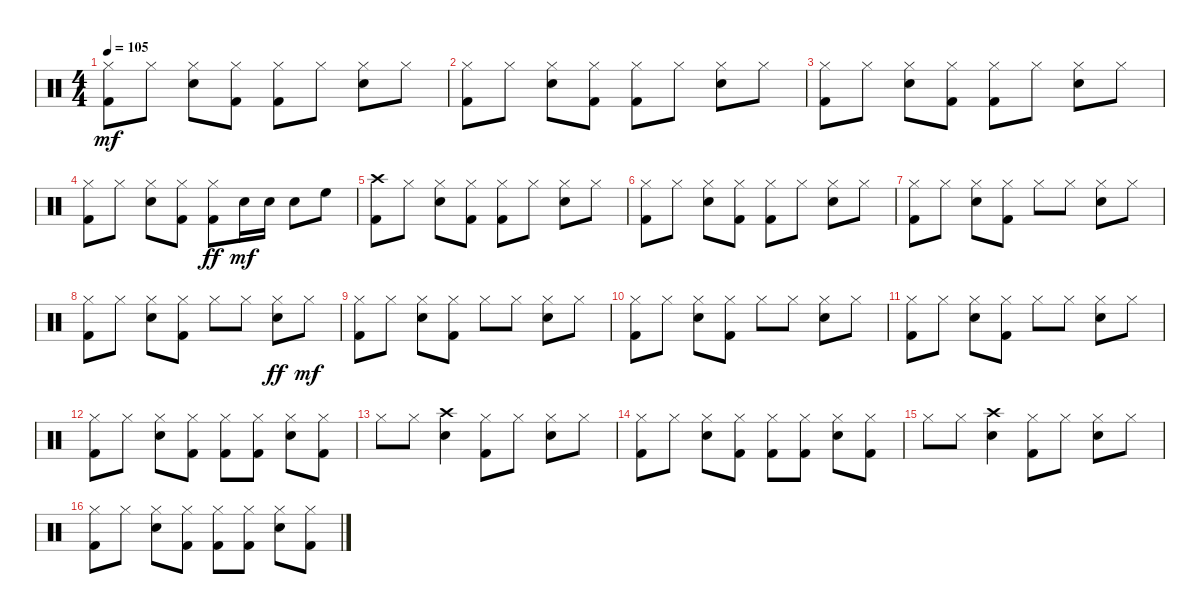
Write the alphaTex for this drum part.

\track "" {instrument percussion}
\staff {score}
\articulation defaults
\ts (4 4)
\tempo 105
\clef neutral
\ks c
("Kick (hit) 2" "Hi-Hat (closed)").8{dy mf} "Hi-Hat (closed)".8 ("Snare (hit) 2" "Hi-Hat (closed)").8 ("Kick (hit) 2" "Hi-Hat (closed)").8 ("Kick (hit) 2" "Hi-Hat (closed)").8 "Hi-Hat (closed)".8 ("Snare (hit) 2" "Hi-Hat (closed)").8 "Hi-Hat (closed)".8 |
("Kick (hit) 2" "Hi-Hat (closed)").8 "Hi-Hat (closed)".8 ("Snare (hit) 2" "Hi-Hat (closed)").8 ("Kick (hit) 2" "Hi-Hat (closed)").8 ("Kick (hit) 2" "Hi-Hat (closed)").8 "Hi-Hat (closed)".8 ("Snare (hit) 2" "Hi-Hat (closed)").8 "Hi-Hat (closed)".8 |
("Kick (hit) 2" "Hi-Hat (closed)").8 "Hi-Hat (closed)".8 ("Snare (hit) 2" "Hi-Hat (closed)").8 ("Kick (hit) 2" "Hi-Hat (closed)").8 ("Kick (hit) 2" "Hi-Hat (closed)").8 "Hi-Hat (closed)".8 ("Snare (hit) 2" "Hi-Hat (closed)").8 "Hi-Hat (closed)".8 |
("Kick (hit) 2" "Hi-Hat (closed)").8 "Hi-Hat (closed)".8 ("Snare (hit) 2" "Hi-Hat (closed)").8 ("Kick (hit) 2" "Hi-Hat (closed)").8 ("Kick (hit) 2" "Hi-Hat (closed)").8{dy ff} "Snare (hit) 2".16{dy mf} "Snare (hit) 2".16 "Snare (hit) 2".8 "High Floor Tom (hit)".8 |
("Kick (hit) 2" "Crash high (hit)").8 "Hi-Hat (closed)".8 ("Snare (hit) 2" "Hi-Hat (closed)").8 ("Kick (hit) 2" "Hi-Hat (closed)").8 ("Kick (hit) 2" "Hi-Hat (closed)").8 "Hi-Hat (closed)".8 ("Snare (hit) 2" "Hi-Hat (closed)").8 "Hi-Hat (closed)".8 |
("Kick (hit) 2" "Hi-Hat (closed)").8 "Hi-Hat (closed)".8 ("Snare (hit) 2" "Hi-Hat (closed)").8 ("Kick (hit) 2" "Hi-Hat (closed)").8 ("Kick (hit) 2" "Hi-Hat (closed)").8 "Hi-Hat (closed)".8 ("Snare (hit) 2" "Hi-Hat (closed)").8 "Hi-Hat (closed)".8 |
("Kick (hit) 2" "Hi-Hat (closed)").8 "Hi-Hat (closed)".8 ("Snare (hit) 2" "Hi-Hat (closed)").8 ("Kick (hit) 2" "Hi-Hat (closed)").8 "Hi-Hat (closed)".8 "Hi-Hat (closed)".8 ("Snare (hit) 2" "Hi-Hat (closed)").8 "Hi-Hat (closed)".8 |
("Kick (hit) 2" "Hi-Hat (closed)").8 "Hi-Hat (closed)".8 ("Snare (hit) 2" "Hi-Hat (closed)").8 ("Kick (hit) 2" "Hi-Hat (closed)").8 "Hi-Hat (closed)".8 "Hi-Hat (closed)".8 ("Snare (hit) 2" "Hi-Hat (closed)").8{dy ff} "Hi-Hat (closed)".8{dy mf} |
("Kick (hit) 2" "Hi-Hat (closed)").8 "Hi-Hat (closed)".8 ("Snare (hit) 2" "Hi-Hat (closed)").8 ("Kick (hit) 2" "Hi-Hat (closed)").8 "Hi-Hat (closed)".8 "Hi-Hat (closed)".8 ("Snare (hit) 2" "Hi-Hat (closed)").8 "Hi-Hat (closed)".8 |
("Kick (hit) 2" "Hi-Hat (closed)").8 "Hi-Hat (closed)".8 ("Snare (hit) 2" "Hi-Hat (closed)").8 ("Kick (hit) 2" "Hi-Hat (closed)").8 "Hi-Hat (closed)".8 "Hi-Hat (closed)".8 ("Snare (hit) 2" "Hi-Hat (closed)").8 "Hi-Hat (closed)".8 |
("Kick (hit) 2" "Hi-Hat (closed)").8 "Hi-Hat (closed)".8 ("Snare (hit) 2" "Hi-Hat (closed)").8 ("Kick (hit) 2" "Hi-Hat (closed)").8 "Hi-Hat (closed)".8 "Hi-Hat (closed)".8 ("Snare (hit) 2" "Hi-Hat (closed)").8 "Hi-Hat (closed)".8 |
("Kick (hit) 2" "Hi-Hat (closed)").8 "Hi-Hat (closed)".8 ("Snare (hit) 2" "Hi-Hat (closed)").8 ("Kick (hit) 2" "Hi-Hat (closed)").8 ("Kick (hit) 2" "Hi-Hat (closed)").8 ("Kick (hit) 2" "Hi-Hat (closed)").8 ("Snare (hit) 2" "Hi-Hat (closed)").8 ("Hi-Hat (closed)" "Kick (hit) 2").8 |
"Hi-Hat (closed)".8 "Hi-Hat (closed)".8 ("Snare (hit) 2" "Crash high (hit)").4 ("Kick (hit) 2" "Hi-Hat (closed)").8 "Hi-Hat (closed)".8 ("Snare (hit) 2" "Hi-Hat (closed)").8 "Hi-Hat (closed)".8 |
("Kick (hit) 2" "Hi-Hat (closed)").8 "Hi-Hat (closed)".8 ("Snare (hit) 2" "Hi-Hat (closed)").8 ("Kick (hit) 2" "Hi-Hat (closed)").8 ("Kick (hit) 2" "Hi-Hat (closed)").8 ("Kick (hit) 2" "Hi-Hat (closed)").8 ("Snare (hit) 2" "Hi-Hat (closed)").8 ("Hi-Hat (closed)" "Kick (hit) 2").8 |
"Hi-Hat (closed)".8 "Hi-Hat (closed)".8 ("Snare (hit) 2" "Crash high (hit)").4 ("Kick (hit) 2" "Hi-Hat (closed)").8 "Hi-Hat (closed)".8 ("Snare (hit) 2" "Hi-Hat (closed)").8 "Hi-Hat (closed)".8 |
("Kick (hit) 2" "Hi-Hat (closed)").8 "Hi-Hat (closed)".8 ("Snare (hit) 2" "Hi-Hat (closed)").8 ("Kick (hit) 2" "Hi-Hat (closed)").8 ("Kick (hit) 2" "Hi-Hat (closed)").8 ("Kick (hit) 2" "Hi-Hat (closed)").8 ("Snare (hit) 2" "Hi-Hat (closed)").8 ("Hi-Hat (closed)" "Kick (hit) 2").8
